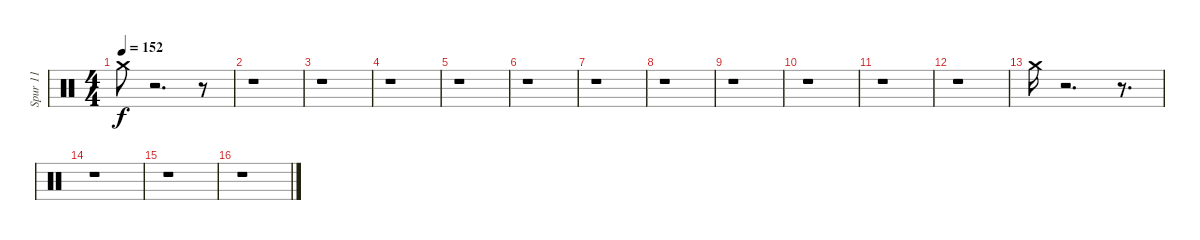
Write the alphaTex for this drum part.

\track ("Spur 11" "Spur 11") {instrument percussion}
\staff {score}
\articulation defaults
\ts (4 4)
\tempo 152
\clef neutral
\ks c "Crash medium (hit)".8{dy f}
r.2{d} r.8 |
r.1 |
r.1 |
r.1 |
r.1 |
r.1 |
r.1 |
r.1 |
r.1 |
r.1 |
r.1 |
r.1 |
"Crash medium (hit)".16 r.2{d} r.8{d} |
r.1 |
r.1 |
r.1
